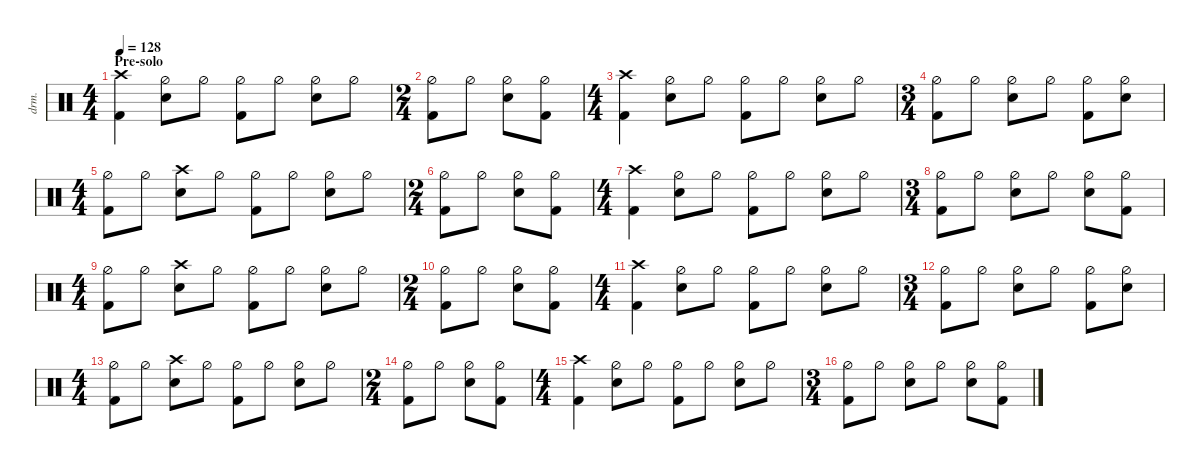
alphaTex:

\defaultSystemsLayout 4
\hideDynamics
\bracketExtendMode nobrackets
\otherSystemsTrackNameOrientation horizontal
\track ("Drumkit" "drm.") {defaultSystemsLayout 4 multiBarRest instrument percussion}
\staff
\articulation defaults
\ts (4 4)
\section ("" "Pre-solo")
\tempo 128
\clef neutral
\ks c
("Kick (hit) 2" "Crash high (hit)").4{dy f beam Down} ("Hi-Hat (half)" "Snare (hit) 2").8{beam Down} "Hi-Hat (half)".8{beam Down} ("Kick (hit) 2" "Hi-Hat (half)").8{beam Down} "Hi-Hat (half)".8{beam Down} ("Hi-Hat (half)" "Snare (hit) 2").8{beam Down} "Hi-Hat (half)".8{beam Down} |
\ts (2 4)
\beaming (8 2 2)
("Kick (hit) 2" "Hi-Hat (half)").8{beam Down} "Hi-Hat (half)".8{beam Down} ("Hi-Hat (half)" "Snare (hit) 2").8{beam Down} ("Hi-Hat (half)" "Kick (hit) 2").8{beam Down} |
\ts (4 4)
\beaming (8 2 2 2 2)
("Kick (hit) 2" "Crash high (hit)").4{beam Down} ("Hi-Hat (half)" "Snare (hit) 2").8{beam Down} "Hi-Hat (half)".8{beam Down} ("Kick (hit) 2" "Hi-Hat (half)").8{beam Down} "Hi-Hat (half)".8{beam Down} ("Hi-Hat (half)" "Snare (hit) 2").8{beam Down} "Hi-Hat (half)".8{beam Down} |
\ts (3 4)
\beaming (8 2 2 2)
("Kick (hit) 2" "Hi-Hat (half)").8{beam Down} "Hi-Hat (half)".8{beam Down} ("Hi-Hat (half)" "Snare (hit) 2").8{beam Down} "Hi-Hat (half)".8{beam Down} ("Hi-Hat (half)" "Kick (hit) 2").8{beam Down} ("Hi-Hat (half)" "Snare (hit) 2").8{beam Down} |
\ts (4 4)
\beaming (8 2 2 2 2)
("Kick (hit) 2" "Hi-Hat (half)").8{beam Down} "Hi-Hat (half)".8{beam Down} ("Snare (hit) 2" "Crash high (hit)").8{beam Down} "Hi-Hat (half)".8{beam Down} ("Kick (hit) 2" "Hi-Hat (half)").8{beam Down} "Hi-Hat (half)".8{beam Down} ("Hi-Hat (half)" "Snare (hit) 2").8{beam Down} "Hi-Hat (half)".8{beam Down} |
\ts (2 4)
\beaming (8 2 2)
("Kick (hit) 2" "Hi-Hat (half)").8{beam Down} "Hi-Hat (half)".8{beam Down} ("Hi-Hat (half)" "Snare (hit) 2").8{beam Down} ("Hi-Hat (half)" "Kick (hit) 2").8{beam Down} |
\ts (4 4)
\beaming (8 2 2 2 2)
("Kick (hit) 2" "Crash high (hit)").4{beam Down} ("Hi-Hat (half)" "Snare (hit) 2").8{beam Down} "Hi-Hat (half)".8{beam Down} ("Kick (hit) 2" "Hi-Hat (half)").8{beam Down} "Hi-Hat (half)".8{beam Down} ("Hi-Hat (half)" "Snare (hit) 2").8{beam Down} "Hi-Hat (half)".8{beam Down} |
\ts (3 4)
\beaming (8 2 2 2)
("Kick (hit) 2" "Hi-Hat (half)").8{beam Down} "Hi-Hat (half)".8{beam Down} ("Hi-Hat (half)" "Snare (hit) 2").8{beam Down} "Hi-Hat (half)".8{beam Down} ("Hi-Hat (half)" "Snare (hit) 2").8{beam Down} ("Kick (hit) 2" "Hi-Hat (half)").8{beam Down} |
\ts (4 4)
\beaming (8 2 2 2 2)
("Kick (hit) 2" "Hi-Hat (half)").8{beam Down} "Hi-Hat (half)".8{beam Down} ("Snare (hit) 2" "Crash high (hit)").8{beam Down} "Hi-Hat (half)".8{beam Down} ("Kick (hit) 2" "Hi-Hat (half)").8{beam Down} "Hi-Hat (half)".8{beam Down} ("Hi-Hat (half)" "Snare (hit) 2").8{beam Down} "Hi-Hat (half)".8{beam Down} |
\ts (2 4)
\beaming (8 2 2)
("Kick (hit) 2" "Hi-Hat (half)").8{beam Down} "Hi-Hat (half)".8{beam Down} ("Hi-Hat (half)" "Snare (hit) 2").8{beam Down} ("Hi-Hat (half)" "Kick (hit) 2").8{beam Down} |
\ts (4 4)
\beaming (8 2 2 2 2)
("Kick (hit) 2" "Crash high (hit)").4{beam Down} ("Hi-Hat (half)" "Snare (hit) 2").8{beam Down} "Hi-Hat (half)".8{beam Down} ("Kick (hit) 2" "Hi-Hat (half)").8{beam Down} "Hi-Hat (half)".8{beam Down} ("Hi-Hat (half)" "Snare (hit) 2").8{beam Down} "Hi-Hat (half)".8{beam Down} |
\ts (3 4)
\beaming (8 2 2 2)
("Kick (hit) 2" "Hi-Hat (half)").8{beam Down} "Hi-Hat (half)".8{beam Down} ("Hi-Hat (half)" "Snare (hit) 2").8{beam Down} "Hi-Hat (half)".8{beam Down} ("Hi-Hat (half)" "Kick (hit) 2").8{beam Down} ("Hi-Hat (half)" "Snare (hit) 2").8{beam Down} |
\ts (4 4)
\beaming (8 2 2 2 2)
("Kick (hit) 2" "Hi-Hat (half)").8{beam Down} "Hi-Hat (half)".8{beam Down} ("Snare (hit) 2" "Crash high (hit)").8{beam Down} "Hi-Hat (half)".8{beam Down} ("Kick (hit) 2" "Hi-Hat (half)").8{beam Down} "Hi-Hat (half)".8{beam Down} ("Hi-Hat (half)" "Snare (hit) 2").8{beam Down} "Hi-Hat (half)".8{beam Down} |
\ts (2 4)
\beaming (8 2 2)
("Kick (hit) 2" "Hi-Hat (half)").8{beam Down} "Hi-Hat (half)".8{beam Down} ("Hi-Hat (half)" "Snare (hit) 2").8{beam Down} ("Hi-Hat (half)" "Kick (hit) 2").8{beam Down} |
\ts (4 4)
\beaming (8 2 2 2 2)
("Kick (hit) 2" "Crash high (hit)").4{beam Down} ("Hi-Hat (half)" "Snare (hit) 2").8{beam Down} "Hi-Hat (half)".8{beam Down} ("Kick (hit) 2" "Hi-Hat (half)").8{beam Down} "Hi-Hat (half)".8{beam Down} ("Hi-Hat (half)" "Snare (hit) 2").8{beam Down} "Hi-Hat (half)".8{beam Down} |
\ts (3 4)
\beaming (8 2 2 2)
("Kick (hit) 2" "Hi-Hat (half)").8{beam Down} "Hi-Hat (half)".8{beam Down} ("Hi-Hat (half)" "Snare (hit) 2").8{beam Down} "Hi-Hat (half)".8{beam Down} ("Hi-Hat (half)" "Snare (hit) 2").8{beam Down} ("Kick (hit) 2" "Hi-Hat (half)").8{beam Down}
